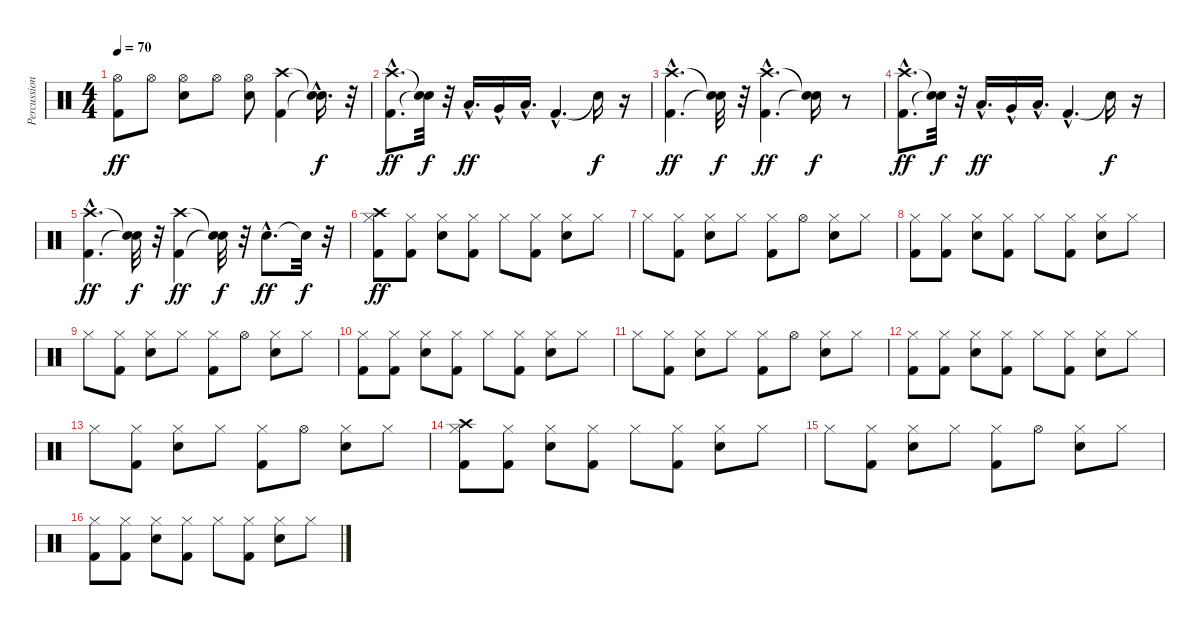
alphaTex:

\track ("Percussions" "Percussion") {instrument percussion}
\staff {score}
\articulation defaults
\ts (4 4)
\tempo 70
\clef neutral
\ks c
("Kick (hit) 2" "Hi-Hat (open)").8{dy ff} "Hi-Hat (open)".8 ("Snare (hit) 2" "Hi-Hat (open)").8 "Hi-Hat (open)".8 ("Snare (hit) 2" "Hi-Hat (open)").8 ("Kick (hit) 2" "Crash high (hit)").4 ("Snare (hit)"{hac t} "Snare (hit)"{hac t}).16{d dy f} r.32 |
("Kick (hit) 2"{hac} "Crash high (hit)"{hac}).8{d dy ff} ("Snare (hit)"{t} "Snare (hit)"{t}).32{dy f} r.32 "Low Tom (hit)"{hac}.16{d dy ff} "Very Low Tom (hit)"{hac}.16 "Low Floor Tom (hit)"{hac}.16{d} "Kick (hit) 2"{hac}.4{d} "Snare (hit)"{t}.16{dy f} r.16 |
("Kick (hit) 2"{hac} "Crash high (hit)"{hac}).4{d dy ff} ("Snare (hit)"{t} "Snare (hit)"{t}).32{dy f} r.32 ("Kick (hit) 2"{hac} "Crash high (hit)"{hac}).4{d dy ff} ("Snare (hit)"{t} "Snare (hit)"{t}).16{dy f} r.8 |
("Kick (hit) 2"{hac} "Crash high (hit)"{hac}).8{d dy ff} ("Snare (hit)"{t} "Snare (hit)"{t}).32{dy f} r.32 "Low Tom (hit)"{hac}.16{d dy ff} "Very Low Tom (hit)"{hac}.16 "Low Floor Tom (hit)"{hac}.16{d} "Kick (hit) 2"{hac}.4{d} "Snare (hit)"{t}.16{dy f} r.16 |
("Kick (hit) 2"{hac} "Crash high (hit)"{hac}).4{d dy ff} ("Snare (hit)"{t} "Snare (hit)"{t}).32{dy f} r.32 ("Kick (hit) 2" "Crash high (hit)").4{dy ff} ("Snare (hit)"{t} "Snare (hit)"{t}).32{dy f} r.32 "Snare (hit) 2"{hac}.8{d dy ff} "Snare (hit)"{t}.32{dy f} r.32 |
("Kick (hit) 2" "Hi-Hat (closed)" "Crash high (hit)").8{dy ff} ("Kick (hit) 2" "Hi-Hat (closed)").8 ("Snare (hit) 2" "Hi-Hat (closed)").8 ("Kick (hit) 2" "Hi-Hat (closed)").8 "Hi-Hat (closed)".8 ("Kick (hit) 2" "Hi-Hat (closed)").8 ("Snare (hit) 2" "Hi-Hat (closed)").8 "Hi-Hat (closed)".8 |
"Hi-Hat (closed)".8 ("Kick (hit) 2" "Hi-Hat (closed)").8 ("Snare (hit) 2" "Hi-Hat (closed)").8 "Hi-Hat (closed)".8 ("Kick (hit) 2" "Hi-Hat (closed)").8 "Hi-Hat (open)".8 ("Snare (hit) 2" "Hi-Hat (closed)").8 "Hi-Hat (closed)".8 |
("Kick (hit) 2" "Hi-Hat (closed)").8 ("Kick (hit) 2" "Hi-Hat (closed)").8 ("Snare (hit) 2" "Hi-Hat (closed)").8 ("Kick (hit) 2" "Hi-Hat (closed)").8 "Hi-Hat (closed)".8 ("Kick (hit) 2" "Hi-Hat (closed)").8 ("Snare (hit) 2" "Hi-Hat (closed)").8 "Hi-Hat (closed)".8 |
"Hi-Hat (closed)".8 ("Kick (hit) 2" "Hi-Hat (closed)").8 ("Snare (hit) 2" "Hi-Hat (closed)").8 "Hi-Hat (closed)".8 ("Kick (hit) 2" "Hi-Hat (closed)").8 "Hi-Hat (open)".8 ("Snare (hit) 2" "Hi-Hat (closed)").8 "Hi-Hat (closed)".8 |
("Kick (hit) 2" "Hi-Hat (closed)").8 ("Kick (hit) 2" "Hi-Hat (closed)").8 ("Snare (hit) 2" "Hi-Hat (closed)").8 ("Kick (hit) 2" "Hi-Hat (closed)").8 "Hi-Hat (closed)".8 ("Kick (hit) 2" "Hi-Hat (closed)").8 ("Snare (hit) 2" "Hi-Hat (closed)").8 "Hi-Hat (closed)".8 |
"Hi-Hat (closed)".8 ("Kick (hit) 2" "Hi-Hat (closed)").8 ("Snare (hit) 2" "Hi-Hat (closed)").8 "Hi-Hat (closed)".8 ("Kick (hit) 2" "Hi-Hat (closed)").8 "Hi-Hat (open)".8 ("Snare (hit) 2" "Hi-Hat (closed)").8 "Hi-Hat (closed)".8 |
("Kick (hit) 2" "Hi-Hat (closed)").8 ("Kick (hit) 2" "Hi-Hat (closed)").8 ("Snare (hit) 2" "Hi-Hat (closed)").8 ("Kick (hit) 2" "Hi-Hat (closed)").8 "Hi-Hat (closed)".8 ("Kick (hit) 2" "Hi-Hat (closed)").8 ("Snare (hit) 2" "Hi-Hat (closed)").8 "Hi-Hat (closed)".8 |
"Hi-Hat (closed)".8 ("Kick (hit) 2" "Hi-Hat (closed)").8 ("Snare (hit) 2" "Hi-Hat (closed)").8 "Hi-Hat (closed)".8 ("Kick (hit) 2" "Hi-Hat (closed)").8 "Hi-Hat (open)".8 ("Snare (hit) 2" "Hi-Hat (closed)").8 "Hi-Hat (closed)".8 |
("Kick (hit) 2" "Hi-Hat (closed)" "Crash high (hit)").8 ("Kick (hit) 2" "Hi-Hat (closed)").8 ("Snare (hit) 2" "Hi-Hat (closed)").8 ("Kick (hit) 2" "Hi-Hat (closed)").8 "Hi-Hat (closed)".8 ("Kick (hit) 2" "Hi-Hat (closed)").8 ("Snare (hit) 2" "Hi-Hat (closed)").8 "Hi-Hat (closed)".8 |
"Hi-Hat (closed)".8 ("Kick (hit) 2" "Hi-Hat (closed)").8 ("Snare (hit) 2" "Hi-Hat (closed)").8 "Hi-Hat (closed)".8 ("Kick (hit) 2" "Hi-Hat (closed)").8 "Hi-Hat (open)".8 ("Snare (hit) 2" "Hi-Hat (closed)").8 "Hi-Hat (closed)".8 |
("Kick (hit) 2" "Hi-Hat (closed)").8 ("Kick (hit) 2" "Hi-Hat (closed)").8 ("Snare (hit) 2" "Hi-Hat (closed)").8 ("Kick (hit) 2" "Hi-Hat (closed)").8 "Hi-Hat (closed)".8 ("Kick (hit) 2" "Hi-Hat (closed)").8 ("Snare (hit) 2" "Hi-Hat (closed)").8 "Hi-Hat (closed)".8
